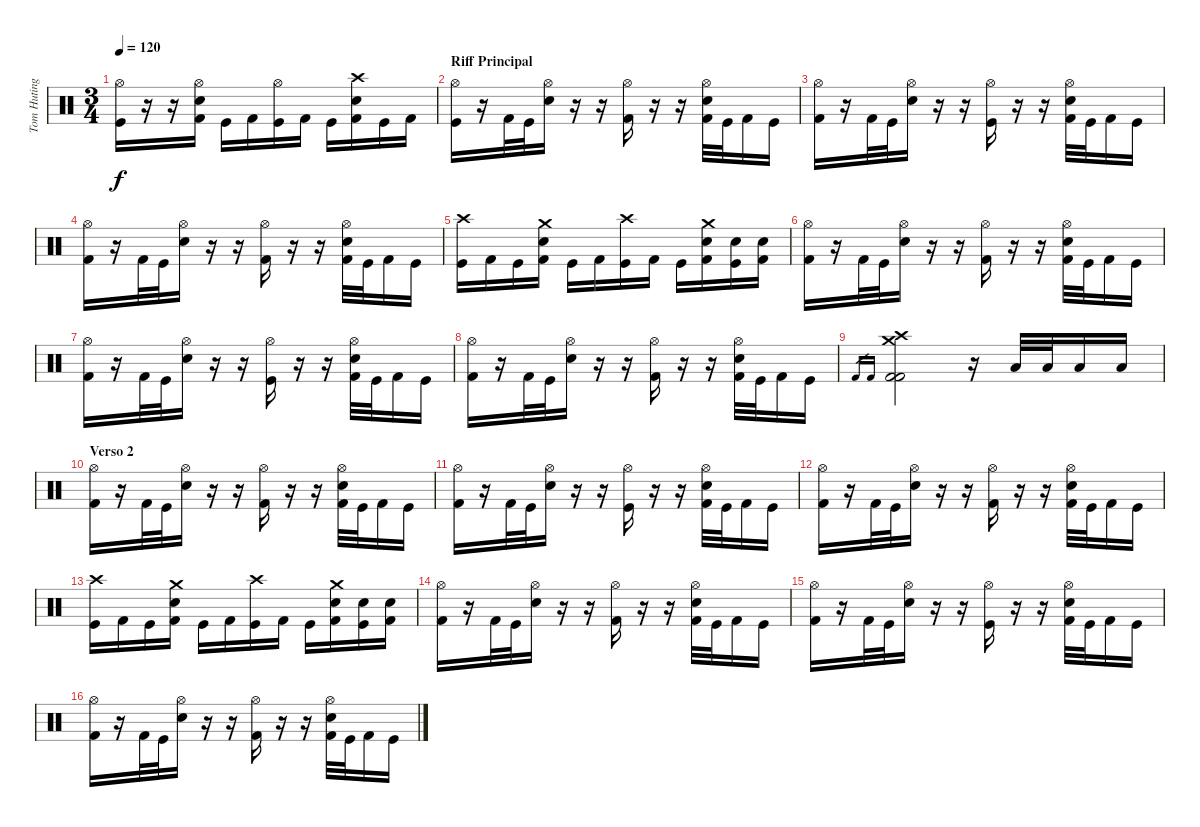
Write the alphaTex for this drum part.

\track ("Tom Huting" "Tom Huting") {instrument percussion}
\staff {score}
\articulation defaults
\ts (3 4)
\tempo 120
\clef neutral
\ks c
("Kick (hit)" "Hi-Hat (open)").16{dy f} r.16 r.16 ("Kick (hit) 2" "Snare (hit) 2" "Hi-Hat (open)").16 "Kick (hit)".16 "Kick (hit) 2".16 ("Kick (hit)" "Hi-Hat (open)").16 "Kick (hit) 2".16 "Kick (hit)".16 ("Kick (hit) 2" "Snare (hit) 2" "Crash high (hit)").16 "Kick (hit)".16 "Kick (hit) 2".16 |
\section ("" "Riff Principal")
("Kick (hit)" "Hi-Hat (open)").16 r.16 "Kick (hit) 2".32 "Kick (hit)".32 ("Snare (hit) 2" "Hi-Hat (open)").16 r.16 r.16 ("Kick (hit) 2" "Hi-Hat (open)").16 r.16 r.16 ("Kick (hit) 2" "Snare (hit) 2" "Hi-Hat (open)").32 "Kick (hit)".32 "Kick (hit) 2".16 "Kick (hit)".16 |
("Kick (hit) 2" "Hi-Hat (open)").16 r.16 "Kick (hit) 2".32 "Kick (hit)".32 ("Snare (hit) 2" "Hi-Hat (open)").16 r.16 r.16 ("Kick (hit)" "Hi-Hat (open)").16 r.16 r.16 ("Kick (hit) 2" "Snare (hit) 2" "Hi-Hat (open)").32 "Kick (hit)".32 "Kick (hit) 2".16 "Kick (hit)".16 |
("Kick (hit) 2" "Hi-Hat (open)").16 r.16 "Kick (hit) 2".32 "Kick (hit)".32 ("Snare (hit) 2" "Hi-Hat (open)").16 r.16 r.16 ("Kick (hit) 2" "Hi-Hat (open)").16 r.16 r.16 ("Kick (hit) 2" "Snare (hit) 2" "Hi-Hat (open)").32 "Kick (hit)".32 "Kick (hit) 2".16 "Kick (hit)".16 |
("Kick (hit)" "Crash high (hit)").16 "Kick (hit) 2".16 "Kick (hit)".16 ("Kick (hit) 2" "Snare (hit) 2" "Crash medium (hit)").16 "Kick (hit)".16 "Kick (hit) 2".16 ("Kick (hit)" "Crash high (hit)").16 "Kick (hit) 2".16 "Kick (hit)".16 ("Kick (hit) 2" "Snare (hit) 2" "Crash medium (hit)").16 ("Kick (hit)" "Snare (hit) 2").16 ("Kick (hit) 2" "Snare (hit) 2").16 |
("Kick (hit) 2" "Hi-Hat (open)").16 r.16 "Kick (hit) 2".32 "Kick (hit)".32 ("Snare (hit) 2" "Hi-Hat (open)").16 r.16 r.16 ("Kick (hit) 2" "Hi-Hat (open)").16 r.16 r.16 ("Kick (hit) 2" "Snare (hit) 2" "Hi-Hat (open)").32 "Kick (hit)".32 "Kick (hit) 2".16 "Kick (hit)".16 |
("Kick (hit) 2" "Hi-Hat (open)").16 r.16 "Kick (hit) 2".32 "Kick (hit)".32 ("Snare (hit) 2" "Hi-Hat (open)").16 r.16 r.16 ("Kick (hit)" "Hi-Hat (open)").16 r.16 r.16 ("Kick (hit) 2" "Snare (hit) 2" "Hi-Hat (open)").32 "Kick (hit)".32 "Kick (hit) 2".16 "Kick (hit)".16 |
("Kick (hit) 2" "Hi-Hat (open)").16 r.16 "Kick (hit) 2".32 "Kick (hit)".32 ("Snare (hit) 2" "Hi-Hat (open)").16 r.16 r.16 ("Kick (hit) 2" "Hi-Hat (open)").16 r.16 r.16 ("Kick (hit) 2" "Snare (hit) 2" "Hi-Hat (open)").32 "Kick (hit)".32 "Kick (hit) 2".16 "Kick (hit)".16 |
"Kick (hit) 2".16{gr} "Kick (hit) 2".16{gr} ("Kick (hit) 2" "Kick (hit) 2" "Crash medium (hit)" "Crash high (hit)").2 r.16 "Low Tom (hit)".32 "Low Tom (hit)".32 "Low Tom (hit)".16 "Low Tom (hit)".16 |
\section ("" "Verso 2")
("Kick (hit) 2" "Hi-Hat (open)").16 r.16 "Kick (hit) 2".32 "Kick (hit)".32 ("Snare (hit) 2" "Hi-Hat (open)").16 r.16 r.16 ("Kick (hit) 2" "Hi-Hat (open)").16 r.16 r.16 ("Kick (hit) 2" "Snare (hit) 2" "Hi-Hat (open)").32 "Kick (hit)".32 "Kick (hit) 2".16 "Kick (hit)".16 |
("Kick (hit) 2" "Hi-Hat (open)").16 r.16 "Kick (hit) 2".32 "Kick (hit)".32 ("Snare (hit) 2" "Hi-Hat (open)").16 r.16 r.16 ("Kick (hit)" "Hi-Hat (open)").16 r.16 r.16 ("Kick (hit) 2" "Snare (hit) 2" "Hi-Hat (open)").32 "Kick (hit)".32 "Kick (hit) 2".16 "Kick (hit)".16 |
("Kick (hit) 2" "Hi-Hat (open)").16 r.16 "Kick (hit) 2".32 "Kick (hit)".32 ("Snare (hit) 2" "Hi-Hat (open)").16 r.16 r.16 ("Kick (hit) 2" "Hi-Hat (open)").16 r.16 r.16 ("Kick (hit) 2" "Snare (hit) 2" "Hi-Hat (open)").32 "Kick (hit)".32 "Kick (hit) 2".16 "Kick (hit)".16 |
("Kick (hit)" "Crash high (hit)").16 "Kick (hit) 2".16 "Kick (hit)".16 ("Kick (hit) 2" "Snare (hit) 2" "Crash medium (hit)").16 "Kick (hit)".16 "Kick (hit) 2".16 ("Kick (hit)" "Crash high (hit)").16 "Kick (hit) 2".16 "Kick (hit)".16 ("Kick (hit) 2" "Snare (hit) 2" "Crash medium (hit)").16 ("Kick (hit)" "Snare (hit) 2").16 ("Kick (hit) 2" "Snare (hit) 2").16 |
("Kick (hit) 2" "Hi-Hat (open)").16 r.16 "Kick (hit) 2".32 "Kick (hit)".32 ("Snare (hit) 2" "Hi-Hat (open)").16 r.16 r.16 ("Kick (hit) 2" "Hi-Hat (open)").16 r.16 r.16 ("Kick (hit) 2" "Snare (hit) 2" "Hi-Hat (open)").32 "Kick (hit)".32 "Kick (hit) 2".16 "Kick (hit)".16 |
("Kick (hit) 2" "Hi-Hat (open)").16 r.16 "Kick (hit) 2".32 "Kick (hit)".32 ("Snare (hit) 2" "Hi-Hat (open)").16 r.16 r.16 ("Kick (hit)" "Hi-Hat (open)").16 r.16 r.16 ("Kick (hit) 2" "Snare (hit) 2" "Hi-Hat (open)").32 "Kick (hit)".32 "Kick (hit) 2".16 "Kick (hit)".16 |
("Kick (hit) 2" "Hi-Hat (open)").16 r.16 "Kick (hit) 2".32 "Kick (hit)".32 ("Snare (hit) 2" "Hi-Hat (open)").16 r.16 r.16 ("Kick (hit) 2" "Hi-Hat (open)").16 r.16 r.16 ("Kick (hit) 2" "Snare (hit) 2" "Hi-Hat (open)").32 "Kick (hit)".32 "Kick (hit) 2".16 "Kick (hit)".16
